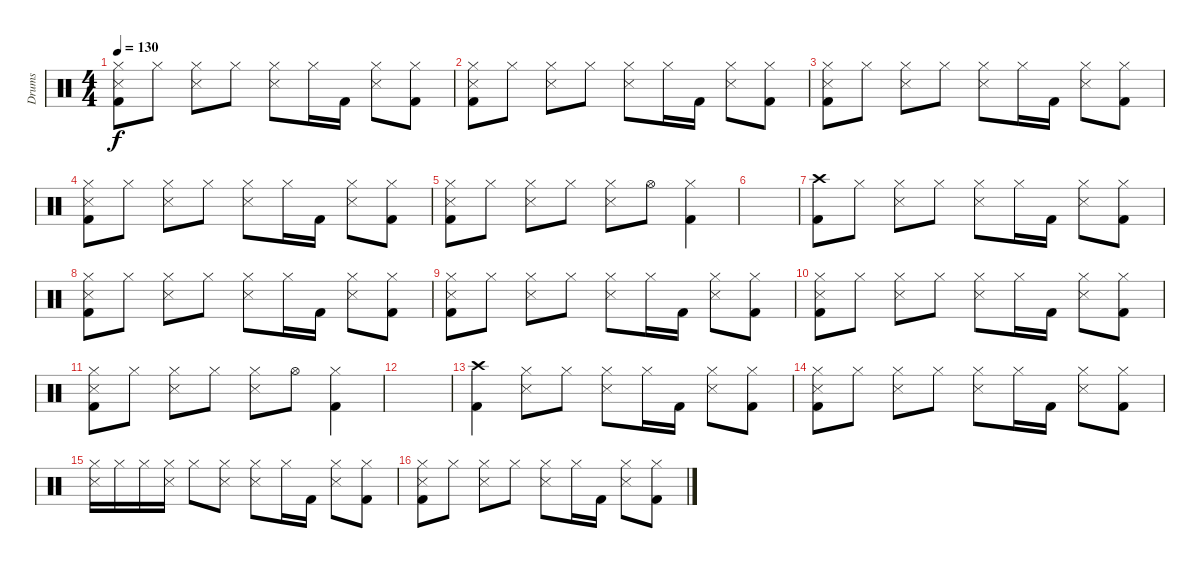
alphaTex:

\track ("Drums" "Drums") {instrument percussion}
\staff {score}
\articulation defaults
\ts (4 4)
\tempo 130
\clef neutral
\ks c
("Hi-Hat (closed)" "Snare (side stick) 3" "Kick (hit) 2").8{dy f} "Hi-Hat (closed)".8 ("Hi-Hat (closed)" "Snare (side stick) 3").8 "Hi-Hat (closed)".8 ("Hi-Hat (closed)" "Snare (side stick) 3").8 "Hi-Hat (closed)".16 "Kick (hit) 2".16 ("Hi-Hat (closed)" "Snare (side stick) 3").8 ("Hi-Hat (closed)" "Kick (hit) 2").8 |
("Hi-Hat (closed)" "Snare (side stick) 3" "Kick (hit) 2").8 "Hi-Hat (closed)".8 ("Hi-Hat (closed)" "Snare (side stick) 3").8 "Hi-Hat (closed)".8 ("Hi-Hat (closed)" "Snare (side stick) 3").8 "Hi-Hat (closed)".16 "Kick (hit) 2".16 ("Hi-Hat (closed)" "Snare (side stick) 3").8 ("Hi-Hat (closed)" "Kick (hit) 2").8 |
("Hi-Hat (closed)" "Snare (side stick) 3" "Kick (hit) 2").8 "Hi-Hat (closed)".8 ("Hi-Hat (closed)" "Snare (side stick) 3").8 "Hi-Hat (closed)".8 ("Hi-Hat (closed)" "Snare (side stick) 3").8 "Hi-Hat (closed)".16 "Kick (hit) 2".16 ("Hi-Hat (closed)" "Snare (side stick) 3").8 ("Hi-Hat (closed)" "Kick (hit) 2").8 |
("Hi-Hat (closed)" "Snare (side stick) 3" "Kick (hit) 2").8 "Hi-Hat (closed)".8 ("Hi-Hat (closed)" "Snare (side stick) 3").8 "Hi-Hat (closed)".8 ("Hi-Hat (closed)" "Snare (side stick) 3").8 "Hi-Hat (closed)".16 "Kick (hit) 2".16 ("Hi-Hat (closed)" "Snare (side stick) 3").8 ("Hi-Hat (closed)" "Kick (hit) 2").8 |
("Hi-Hat (closed)" "Snare (side stick) 3" "Kick (hit) 2").8 "Hi-Hat (closed)".8 ("Hi-Hat (closed)" "Snare (side stick) 3").8 "Hi-Hat (closed)".8 ("Hi-Hat (closed)" "Snare (side stick) 3").8 "Hi-Hat (open)".8 ("Hi-Hat (closed)" "Kick (hit) 2").4 |
|
("Crash high (hit)" "Kick (hit) 2").8 "Hi-Hat (closed)".8 ("Hi-Hat (closed)" "Snare (side stick) 3").8 "Hi-Hat (closed)".8 ("Hi-Hat (closed)" "Snare (side stick) 3").8 "Hi-Hat (closed)".16 "Kick (hit) 2".16 ("Hi-Hat (closed)" "Snare (side stick) 3").8 ("Hi-Hat (closed)" "Kick (hit) 2").8 |
("Hi-Hat (closed)" "Snare (side stick) 3" "Kick (hit) 2").8 "Hi-Hat (closed)".8 ("Hi-Hat (closed)" "Snare (side stick) 3").8 "Hi-Hat (closed)".8 ("Hi-Hat (closed)" "Snare (side stick) 3").8 "Hi-Hat (closed)".16 "Kick (hit) 2".16 ("Hi-Hat (closed)" "Snare (side stick) 3").8 ("Hi-Hat (closed)" "Kick (hit) 2").8 |
("Hi-Hat (closed)" "Snare (side stick) 3" "Kick (hit) 2").8 "Hi-Hat (closed)".8 ("Hi-Hat (closed)" "Snare (side stick) 3").8 "Hi-Hat (closed)".8 ("Hi-Hat (closed)" "Snare (side stick) 3").8 "Hi-Hat (closed)".16 "Kick (hit) 2".16 ("Hi-Hat (closed)" "Snare (side stick) 3").8 ("Hi-Hat (closed)" "Kick (hit) 2").8 |
("Hi-Hat (closed)" "Snare (side stick) 3" "Kick (hit) 2").8 "Hi-Hat (closed)".8 ("Hi-Hat (closed)" "Snare (side stick) 3").8 "Hi-Hat (closed)".8 ("Hi-Hat (closed)" "Snare (side stick) 3").8 "Hi-Hat (closed)".16 "Kick (hit) 2".16 ("Hi-Hat (closed)" "Snare (side stick) 3").8 ("Hi-Hat (closed)" "Kick (hit) 2").8 |
("Hi-Hat (closed)" "Snare (side stick) 3" "Kick (hit) 2").8 "Hi-Hat (closed)".8 ("Hi-Hat (closed)" "Snare (side stick) 3").8 "Hi-Hat (closed)".8 ("Hi-Hat (closed)" "Snare (side stick) 3").8 "Hi-Hat (open)".8 ("Hi-Hat (closed)" "Kick (hit) 2").4 |
|
("Crash high (hit)" "Kick (hit) 2").4 ("Hi-Hat (closed)" "Snare (side stick) 3").8 "Hi-Hat (closed)".8 ("Hi-Hat (closed)" "Snare (side stick) 3").8 "Hi-Hat (closed)".16 "Kick (hit) 2".16 ("Hi-Hat (closed)" "Snare (side stick) 3").8 ("Hi-Hat (closed)" "Kick (hit) 2").8 |
("Hi-Hat (closed)" "Snare (side stick) 3" "Kick (hit) 2").8 "Hi-Hat (closed)".8 ("Hi-Hat (closed)" "Snare (side stick) 3").8 "Hi-Hat (closed)".8 ("Hi-Hat (closed)" "Snare (side stick) 3").8 "Hi-Hat (closed)".16 "Kick (hit) 2".16 ("Hi-Hat (closed)" "Snare (side stick) 3").8 ("Hi-Hat (closed)" "Kick (hit) 2").8 |
("Hi-Hat (closed)" "Snare (side stick) 3").16 "Hi-Hat (closed)".16 "Hi-Hat (closed)".16 ("Hi-Hat (closed)" "Snare (side stick) 3").16 "Hi-Hat (closed)".8 ("Hi-Hat (closed)" "Snare (side stick) 3").8 ("Hi-Hat (closed)" "Snare (side stick) 3").8 "Hi-Hat (closed)".16 "Kick (hit) 2".16 ("Hi-Hat (closed)" "Snare (side stick) 3").8 ("Hi-Hat (closed)" "Kick (hit) 2").8 |
("Hi-Hat (closed)" "Snare (side stick) 3" "Kick (hit) 2").8 "Hi-Hat (closed)".8 ("Hi-Hat (closed)" "Snare (side stick) 3").8 "Hi-Hat (closed)".8 ("Hi-Hat (closed)" "Snare (side stick) 3").8 "Hi-Hat (closed)".16 "Kick (hit) 2".16 ("Hi-Hat (closed)" "Snare (side stick) 3").8 ("Hi-Hat (closed)" "Kick (hit) 2").8
